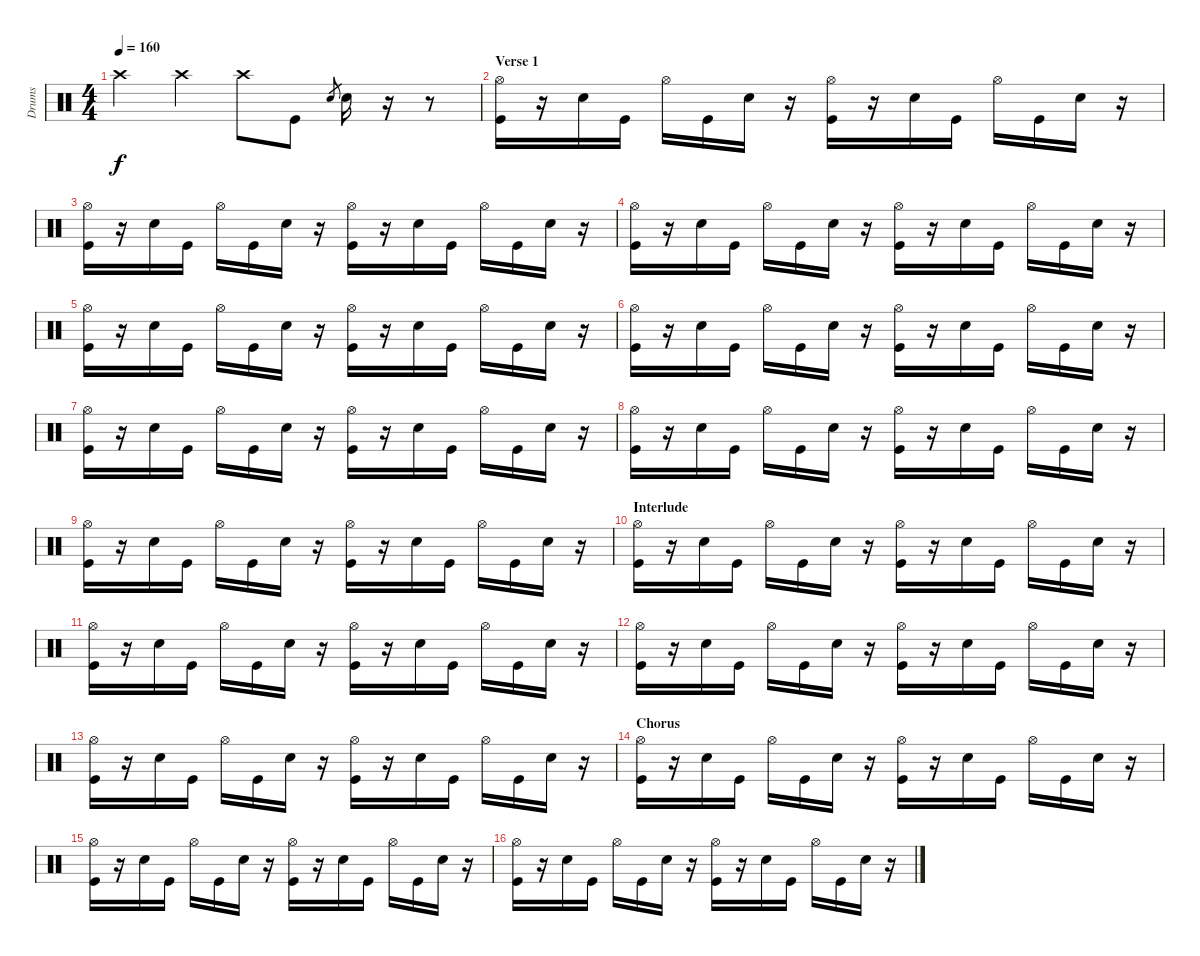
\track ("Drums" "Drums") {instrument percussion}
\staff {score}
\articulation defaults
\ts (4 4)
\tempo 160
\clef neutral
\ks c "Crash high (hit)".4{dy f} "Crash high (hit)".4 "Crash high (hit)".8 "Kick (hit)".8 "Snare (hit) 2".8{gr} "Snare (hit) 2".16
r.16 r.8 |
\section ("" "Verse 1")
("Kick (hit)" "Hi-Hat (open)").16 r.16 "Snare (hit) 2".16 "Kick (hit)".16 "Hi-Hat (open)".16 "Kick (hit)".16 "Snare (hit) 2".16 r.16 ("Kick (hit)" "Hi-Hat (open)").16 r.16 "Snare (hit) 2".16 "Kick (hit)".16 "Hi-Hat (open)".16 "Kick (hit)".16 "Snare (hit) 2".16 r.16 |
("Kick (hit)" "Hi-Hat (open)").16 r.16 "Snare (hit) 2".16 "Kick (hit)".16 "Hi-Hat (open)".16 "Kick (hit)".16 "Snare (hit) 2".16 r.16 ("Kick (hit)" "Hi-Hat (open)").16 r.16 "Snare (hit) 2".16 "Kick (hit)".16 "Hi-Hat (open)".16 "Kick (hit)".16 "Snare (hit) 2".16 r.16 |
("Kick (hit)" "Hi-Hat (open)").16 r.16 "Snare (hit) 2".16 "Kick (hit)".16 "Hi-Hat (open)".16 "Kick (hit)".16 "Snare (hit) 2".16 r.16 ("Kick (hit)" "Hi-Hat (open)").16 r.16 "Snare (hit) 2".16 "Kick (hit)".16 "Hi-Hat (open)".16 "Kick (hit)".16 "Snare (hit) 2".16 r.16 |
("Kick (hit)" "Hi-Hat (open)").16 r.16 "Snare (hit) 2".16 "Kick (hit)".16 "Hi-Hat (open)".16 "Kick (hit)".16 "Snare (hit) 2".16 r.16 ("Kick (hit)" "Hi-Hat (open)").16 r.16 "Snare (hit) 2".16 "Kick (hit)".16 "Hi-Hat (open)".16 "Kick (hit)".16 "Snare (hit) 2".16 r.16 |
("Kick (hit)" "Hi-Hat (open)").16 r.16 "Snare (hit) 2".16 "Kick (hit)".16 "Hi-Hat (open)".16 "Kick (hit)".16 "Snare (hit) 2".16 r.16 ("Kick (hit)" "Hi-Hat (open)").16 r.16 "Snare (hit) 2".16 "Kick (hit)".16 "Hi-Hat (open)".16 "Kick (hit)".16 "Snare (hit) 2".16 r.16 |
("Kick (hit)" "Hi-Hat (open)").16 r.16 "Snare (hit) 2".16 "Kick (hit)".16 "Hi-Hat (open)".16 "Kick (hit)".16 "Snare (hit) 2".16 r.16 ("Kick (hit)" "Hi-Hat (open)").16 r.16 "Snare (hit) 2".16 "Kick (hit)".16 "Hi-Hat (open)".16 "Kick (hit)".16 "Snare (hit) 2".16 r.16 |
("Kick (hit)" "Hi-Hat (open)").16 r.16 "Snare (hit) 2".16 "Kick (hit)".16 "Hi-Hat (open)".16 "Kick (hit)".16 "Snare (hit) 2".16 r.16 ("Kick (hit)" "Hi-Hat (open)").16 r.16 "Snare (hit) 2".16 "Kick (hit)".16 "Hi-Hat (open)".16 "Kick (hit)".16 "Snare (hit) 2".16 r.16 |
("Kick (hit)" "Hi-Hat (open)").16 r.16 "Snare (hit) 2".16 "Kick (hit)".16 "Hi-Hat (open)".16 "Kick (hit)".16 "Snare (hit) 2".16 r.16 ("Kick (hit)" "Hi-Hat (open)").16 r.16 "Snare (hit) 2".16 "Kick (hit)".16 "Hi-Hat (open)".16 "Kick (hit)".16 "Snare (hit) 2".16 r.16 |
\section ("" "Interlude")
("Kick (hit)" "Hi-Hat (open)").16 r.16 "Snare (hit) 2".16 "Kick (hit)".16 "Hi-Hat (open)".16 "Kick (hit)".16 "Snare (hit) 2".16 r.16 ("Kick (hit)" "Hi-Hat (open)").16 r.16 "Snare (hit) 2".16 "Kick (hit)".16 "Hi-Hat (open)".16 "Kick (hit)".16 "Snare (hit) 2".16 r.16 |
("Kick (hit)" "Hi-Hat (open)").16 r.16 "Snare (hit) 2".16 "Kick (hit)".16 "Hi-Hat (open)".16 "Kick (hit)".16 "Snare (hit) 2".16 r.16 ("Kick (hit)" "Hi-Hat (open)").16 r.16 "Snare (hit) 2".16 "Kick (hit)".16 "Hi-Hat (open)".16 "Kick (hit)".16 "Snare (hit) 2".16 r.16 |
("Kick (hit)" "Hi-Hat (open)").16 r.16 "Snare (hit) 2".16 "Kick (hit)".16 "Hi-Hat (open)".16 "Kick (hit)".16 "Snare (hit) 2".16 r.16 ("Kick (hit)" "Hi-Hat (open)").16 r.16 "Snare (hit) 2".16 "Kick (hit)".16 "Hi-Hat (open)".16 "Kick (hit)".16 "Snare (hit) 2".16 r.16 |
("Kick (hit)" "Hi-Hat (open)").16 r.16 "Snare (hit) 2".16 "Kick (hit)".16 "Hi-Hat (open)".16 "Kick (hit)".16 "Snare (hit) 2".16 r.16 ("Kick (hit)" "Hi-Hat (open)").16 r.16 "Snare (hit) 2".16 "Kick (hit)".16 "Hi-Hat (open)".16 "Kick (hit)".16 "Snare (hit) 2".16 r.16 |
\section ("" "Chorus")
("Kick (hit)" "Hi-Hat (open)").16 r.16 "Snare (hit) 2".16 "Kick (hit)".16 "Hi-Hat (open)".16 "Kick (hit)".16 "Snare (hit) 2".16 r.16 ("Kick (hit)" "Hi-Hat (open)").16 r.16 "Snare (hit) 2".16 "Kick (hit)".16 "Hi-Hat (open)".16 "Kick (hit)".16 "Snare (hit) 2".16 r.16 |
("Kick (hit)" "Hi-Hat (open)").16 r.16 "Snare (hit) 2".16 "Kick (hit)".16 "Hi-Hat (open)".16 "Kick (hit)".16 "Snare (hit) 2".16 r.16 ("Kick (hit)" "Hi-Hat (open)").16 r.16 "Snare (hit) 2".16 "Kick (hit)".16 "Hi-Hat (open)".16 "Kick (hit)".16 "Snare (hit) 2".16 r.16 |
("Kick (hit)" "Hi-Hat (open)").16 r.16 "Snare (hit) 2".16 "Kick (hit)".16 "Hi-Hat (open)".16 "Kick (hit)".16 "Snare (hit) 2".16 r.16 ("Kick (hit)" "Hi-Hat (open)").16 r.16 "Snare (hit) 2".16 "Kick (hit)".16 "Hi-Hat (open)".16 "Kick (hit)".16 "Snare (hit) 2".16 r.16
